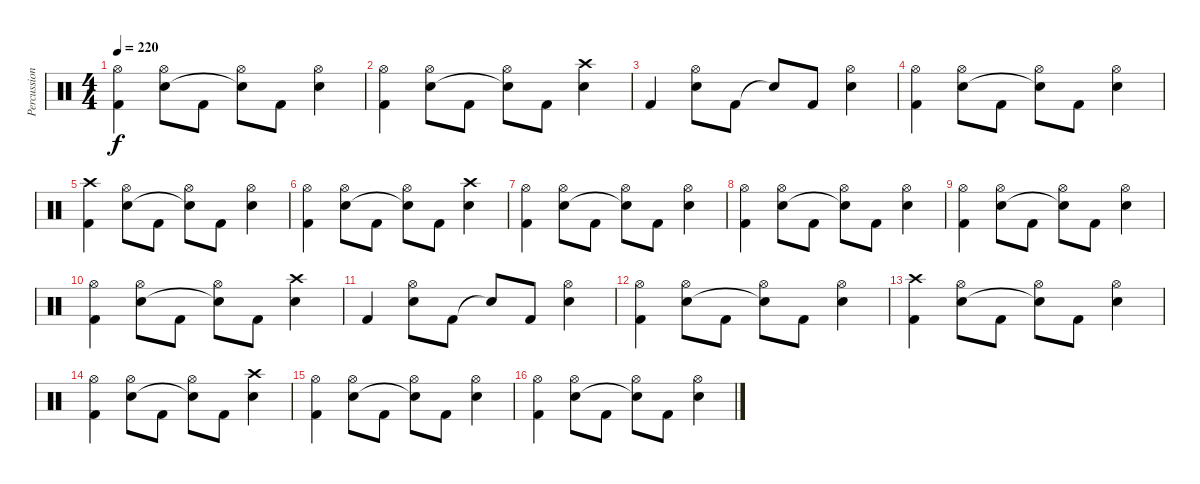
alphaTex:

\track ("Percussion" "Percussion") {instrument percussion}
\staff {score}
\articulation defaults
\ts (4 4)
\tempo 220
\clef neutral
\ks c
("Hi-Hat (open)" "Kick (hit) 2").4{dy f} ("Hi-Hat (open)" "Snare (hit) 2").8 "Kick (hit) 2".8 ("Hi-Hat (open)" "Snare (hit)"{t}).8 "Kick (hit) 2".8 ("Hi-Hat (open)" "Snare (hit) 2").4 |
("Hi-Hat (open)" "Kick (hit) 2").4 ("Hi-Hat (open)" "Snare (hit) 2").8 "Kick (hit) 2".8 ("Hi-Hat (open)" "Snare (hit)"{t}).8 "Kick (hit) 2".8 ("Crash high (hit)" "Snare (hit) 2").4 |
"Kick (hit) 2".4 ("Hi-Hat (open)" "Snare (hit) 2").8 "Kick (hit) 2".8 "Snare (hit)"{t}.8 "Kick (hit) 2".8 ("Hi-Hat (open)" "Snare (hit) 2").4 |
("Hi-Hat (open)" "Kick (hit) 2").4 ("Hi-Hat (open)" "Snare (hit) 2").8 "Kick (hit) 2".8 ("Hi-Hat (open)" "Snare (hit)"{t}).8 "Kick (hit) 2".8 ("Hi-Hat (open)" "Snare (hit) 2").4 |
("Crash high (hit)" "Kick (hit) 2").4 ("Hi-Hat (open)" "Snare (hit) 2").8 "Kick (hit) 2".8 ("Hi-Hat (open)" "Snare (hit)"{t}).8 "Kick (hit) 2".8 ("Hi-Hat (open)" "Snare (hit) 2").4 |
("Hi-Hat (open)" "Kick (hit) 2").4 ("Hi-Hat (open)" "Snare (hit) 2").8 "Kick (hit) 2".8 ("Hi-Hat (open)" "Snare (hit)"{t}).8 "Kick (hit) 2".8 ("Crash high (hit)" "Snare (hit) 2").4 |
("Hi-Hat (open)" "Kick (hit) 2").4 ("Hi-Hat (open)" "Snare (hit) 2").8 "Kick (hit) 2".8 ("Hi-Hat (open)" "Snare (hit)"{t}).8 "Kick (hit) 2".8 ("Hi-Hat (open)" "Snare (hit) 2").4 |
("Hi-Hat (open)" "Kick (hit) 2").4 ("Hi-Hat (open)" "Snare (hit) 2").8 "Kick (hit) 2".8 ("Hi-Hat (open)" "Snare (hit)"{t}).8 "Kick (hit) 2".8 ("Hi-Hat (open)" "Snare (hit) 2").4 |
("Hi-Hat (open)" "Kick (hit) 2").4 ("Hi-Hat (open)" "Snare (hit) 2").8 "Kick (hit) 2".8 ("Hi-Hat (open)" "Snare (hit)"{t}).8 "Kick (hit) 2".8 ("Hi-Hat (open)" "Snare (hit) 2").4 |
("Hi-Hat (open)" "Kick (hit) 2").4 ("Hi-Hat (open)" "Snare (hit) 2").8 "Kick (hit) 2".8 ("Hi-Hat (open)" "Snare (hit)"{t}).8 "Kick (hit) 2".8 ("Crash high (hit)" "Snare (hit) 2").4 |
"Kick (hit) 2".4 ("Hi-Hat (open)" "Snare (hit) 2").8 "Kick (hit) 2".8 "Snare (hit)"{t}.8 "Kick (hit) 2".8 ("Hi-Hat (open)" "Snare (hit) 2").4 |
("Hi-Hat (open)" "Kick (hit) 2").4 ("Hi-Hat (open)" "Snare (hit) 2").8 "Kick (hit) 2".8 ("Hi-Hat (open)" "Snare (hit)"{t}).8 "Kick (hit) 2".8 ("Hi-Hat (open)" "Snare (hit) 2").4 |
("Crash high (hit)" "Kick (hit) 2").4 ("Hi-Hat (open)" "Snare (hit) 2").8 "Kick (hit) 2".8 ("Hi-Hat (open)" "Snare (hit)"{t}).8 "Kick (hit) 2".8 ("Hi-Hat (open)" "Snare (hit) 2").4 |
("Hi-Hat (open)" "Kick (hit) 2").4 ("Hi-Hat (open)" "Snare (hit) 2").8 "Kick (hit) 2".8 ("Hi-Hat (open)" "Snare (hit)"{t}).8 "Kick (hit) 2".8 ("Crash high (hit)" "Snare (hit) 2").4 |
("Hi-Hat (open)" "Kick (hit) 2").4 ("Hi-Hat (open)" "Snare (hit) 2").8 "Kick (hit) 2".8 ("Hi-Hat (open)" "Snare (hit)"{t}).8 "Kick (hit) 2".8 ("Hi-Hat (open)" "Snare (hit) 2").4 |
("Hi-Hat (open)" "Kick (hit) 2").4 ("Hi-Hat (open)" "Snare (hit) 2").8 "Kick (hit) 2".8 ("Hi-Hat (open)" "Snare (hit)"{t}).8 "Kick (hit) 2".8 ("Hi-Hat (open)" "Snare (hit) 2").4
